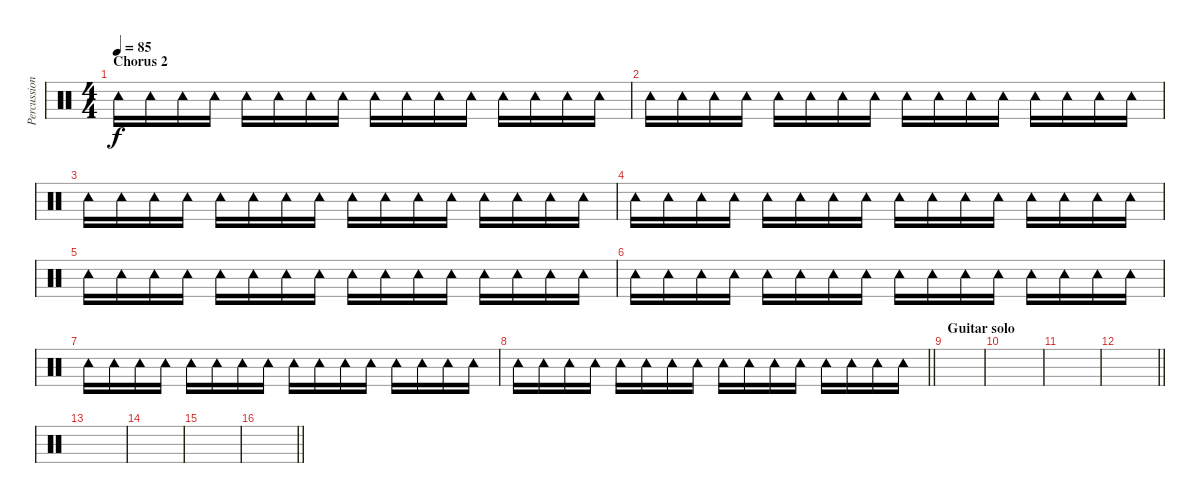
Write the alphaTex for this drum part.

\track ("Percussion" "Percussion") {instrument percussion}
\staff {score}
\articulation defaults
\ts (4 4)
\section ("" "Chorus 2")
\tempo 85
\clef neutral
\ks c "Tambourine (hit)".16{dy f} "Tambourine (hit)".16 "Tambourine (hit)".16 "Tambourine (hit)".16 "Tambourine (hit)".16 "Tambourine (hit)".16 "Tambourine (hit)".16 "Tambourine (hit)".16 "Tambourine (hit)".16 "Tambourine (hit)".16 "Tambourine (hit)".16 "Tambourine (hit)".16 "Tambourine (hit)".16 "Tambourine (hit)".16 "Tambourine (hit)".16 "Tambourine (hit)".16
|
"Tambourine (hit)".16 "Tambourine (hit)".16 "Tambourine (hit)".16 "Tambourine (hit)".16 "Tambourine (hit)".16 "Tambourine (hit)".16 "Tambourine (hit)".16 "Tambourine (hit)".16 "Tambourine (hit)".16 "Tambourine (hit)".16 "Tambourine (hit)".16 "Tambourine (hit)".16 "Tambourine (hit)".16 "Tambourine (hit)".16 "Tambourine (hit)".16 "Tambourine (hit)".16 |
"Tambourine (hit)".16 "Tambourine (hit)".16 "Tambourine (hit)".16 "Tambourine (hit)".16 "Tambourine (hit)".16 "Tambourine (hit)".16 "Tambourine (hit)".16 "Tambourine (hit)".16 "Tambourine (hit)".16 "Tambourine (hit)".16 "Tambourine (hit)".16 "Tambourine (hit)".16 "Tambourine (hit)".16 "Tambourine (hit)".16 "Tambourine (hit)".16 "Tambourine (hit)".16 |
"Tambourine (hit)".16 "Tambourine (hit)".16 "Tambourine (hit)".16 "Tambourine (hit)".16 "Tambourine (hit)".16 "Tambourine (hit)".16 "Tambourine (hit)".16 "Tambourine (hit)".16 "Tambourine (hit)".16 "Tambourine (hit)".16 "Tambourine (hit)".16 "Tambourine (hit)".16 "Tambourine (hit)".16 "Tambourine (hit)".16 "Tambourine (hit)".16 "Tambourine (hit)".16 |
"Tambourine (hit)".16 "Tambourine (hit)".16 "Tambourine (hit)".16 "Tambourine (hit)".16 "Tambourine (hit)".16 "Tambourine (hit)".16 "Tambourine (hit)".16 "Tambourine (hit)".16 "Tambourine (hit)".16 "Tambourine (hit)".16 "Tambourine (hit)".16 "Tambourine (hit)".16 "Tambourine (hit)".16 "Tambourine (hit)".16 "Tambourine (hit)".16 "Tambourine (hit)".16 |
"Tambourine (hit)".16 "Tambourine (hit)".16 "Tambourine (hit)".16 "Tambourine (hit)".16 "Tambourine (hit)".16 "Tambourine (hit)".16 "Tambourine (hit)".16 "Tambourine (hit)".16 "Tambourine (hit)".16 "Tambourine (hit)".16 "Tambourine (hit)".16 "Tambourine (hit)".16 "Tambourine (hit)".16 "Tambourine (hit)".16 "Tambourine (hit)".16 "Tambourine (hit)".16 |
"Tambourine (hit)".16 "Tambourine (hit)".16 "Tambourine (hit)".16 "Tambourine (hit)".16 "Tambourine (hit)".16 "Tambourine (hit)".16 "Tambourine (hit)".16 "Tambourine (hit)".16 "Tambourine (hit)".16 "Tambourine (hit)".16 "Tambourine (hit)".16 "Tambourine (hit)".16 "Tambourine (hit)".16 "Tambourine (hit)".16 "Tambourine (hit)".16 "Tambourine (hit)".16 |
\barLineRight lightlight "Tambourine (hit)".16 "Tambourine (hit)".16 "Tambourine (hit)".16 "Tambourine (hit)".16 "Tambourine (hit)".16 "Tambourine (hit)".16 "Tambourine (hit)".16 "Tambourine (hit)".16 "Tambourine (hit)".16 "Tambourine (hit)".16 "Tambourine (hit)".16 "Tambourine (hit)".16 "Tambourine (hit)".16 "Tambourine (hit)".16 "Tambourine (hit)".16 "Tambourine (hit)".16
|
\section ("" "Guitar solo")
|
|
|
\barLineRight lightlight
|
|
|
|
\barLineRight lightlight
